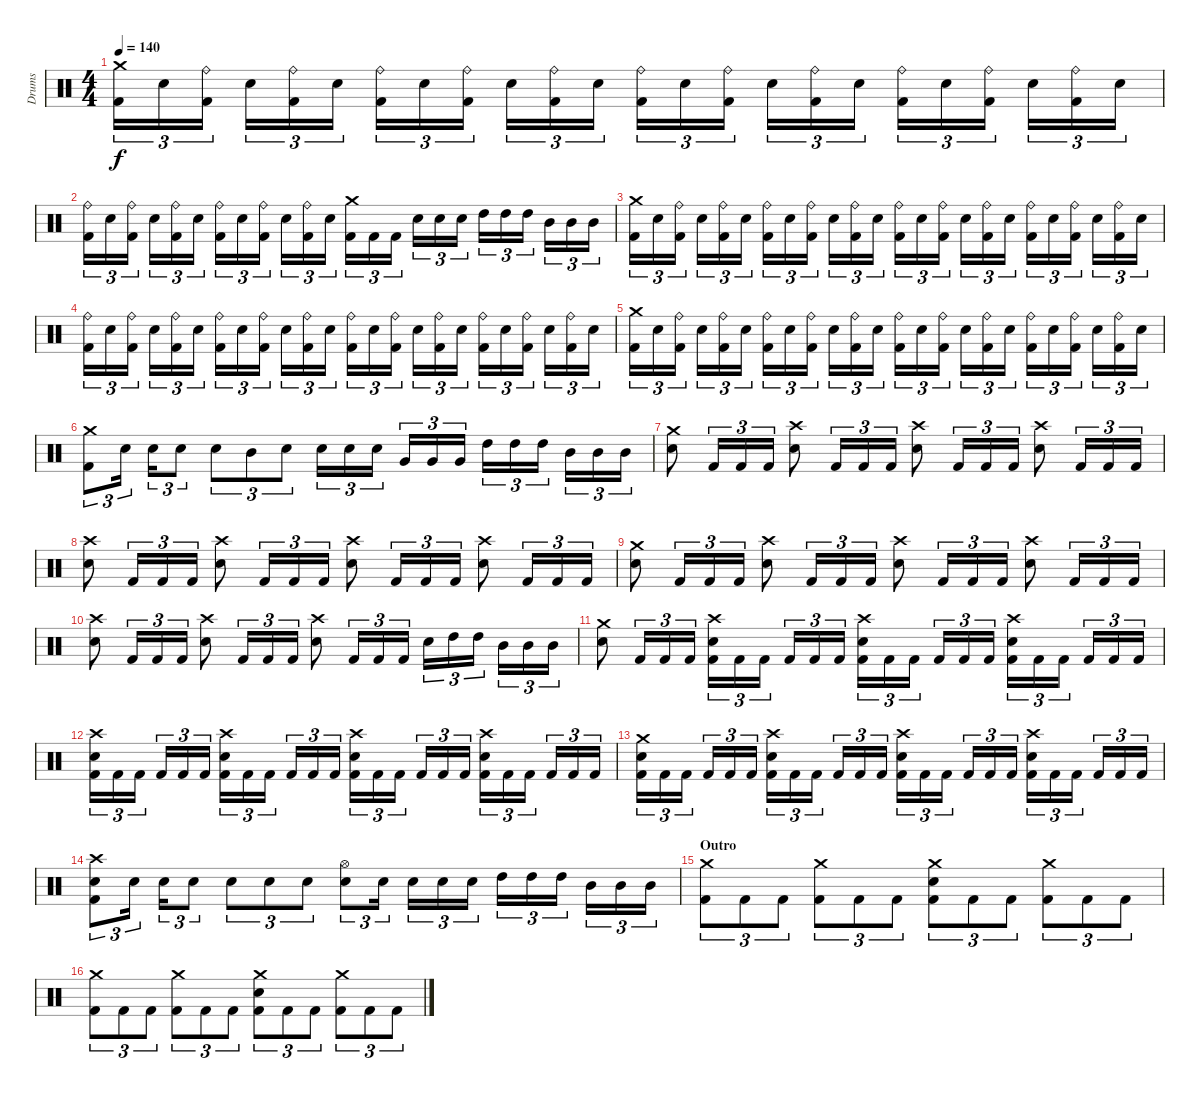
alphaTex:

\track ("Drums" "Drums") {instrument percussion}
\staff {score}
\articulation defaults
\ts (4 4)
\tempo 140
\clef neutral
\ks c
("Crash medium (hit)" "Kick (hit) 2").16{tu (3 2) dy f} "Snare (hit) 2".16{tu (3 2)} ("Ride (bell)" "Kick (hit) 2").16{tu (3 2)} "Snare (hit) 2".16{tu (3 2)} ("Ride (bell)" "Kick (hit) 2").16{tu (3 2)} "Snare (hit) 2".16{tu (3 2)} ("Ride (bell)" "Kick (hit) 2").16{tu (3 2)} "Snare (hit) 2".16{tu (3 2)} ("Ride (bell)" "Kick (hit) 2").16{tu (3 2)} "Snare (hit) 2".16{tu (3 2)} ("Ride (bell)" "Kick (hit) 2").16{tu (3 2)} "Snare (hit) 2".16{tu (3 2)} ("Ride (bell)" "Kick (hit) 2").16{tu (3 2)} "Snare (hit) 2".16{tu (3 2)} ("Ride (bell)" "Kick (hit) 2").16{tu (3 2)} "Snare (hit) 2".16{tu (3 2)} ("Ride (bell)" "Kick (hit) 2").16{tu (3 2)} "Snare (hit) 2".16{tu (3 2)} ("Ride (bell)" "Kick (hit) 2").16{tu (3 2)} "Snare (hit) 2".16{tu (3 2)} ("Ride (bell)" "Kick (hit) 2").16{tu (3 2)} "Snare (hit) 2".16{tu (3 2)} ("Ride (bell)" "Kick (hit) 2").16{tu (3 2)} "Snare (hit) 2".16{tu (3 2)} |
("Ride (bell)" "Kick (hit) 2").16{tu (3 2)} "Snare (hit) 2".16{tu (3 2)} ("Ride (bell)" "Kick (hit) 2").16{tu (3 2)} "Snare (hit) 2".16{tu (3 2)} ("Ride (bell)" "Kick (hit) 2").16{tu (3 2)} "Snare (hit) 2".16{tu (3 2)} ("Ride (bell)" "Kick (hit) 2").16{tu (3 2)} "Snare (hit) 2".16{tu (3 2)} ("Ride (bell)" "Kick (hit) 2").16{tu (3 2)} "Snare (hit) 2".16{tu (3 2)} ("Ride (bell)" "Kick (hit) 2").16{tu (3 2)} "Snare (hit) 2".16{tu (3 2)} ("Crash medium (hit)" "Kick (hit) 2").16{tu (3 2)} "Kick (hit) 2".16{tu (3 2)} "Kick (hit) 2".16{tu (3 2)} "Snare (hit) 2".16{tu (3 2)} "Snare (hit) 2".16{tu (3 2)} "Snare (hit) 2".16{tu (3 2)} "High Tom (hit)".16{tu (3 2)} "High Tom (hit)".16{tu (3 2)} "High Tom (hit)".16{tu (3 2)} "Mid Tom (hit)".16{tu (3 2)} "Mid Tom (hit)".16{tu (3 2)} "Mid Tom (hit)".16{tu (3 2)} |
("Crash medium (hit)" "Kick (hit) 2").16{tu (3 2)} "Snare (hit) 2".16{tu (3 2)} ("Ride (bell)" "Kick (hit) 2").16{tu (3 2)} "Snare (hit) 2".16{tu (3 2)} ("Ride (bell)" "Kick (hit) 2").16{tu (3 2)} "Snare (hit) 2".16{tu (3 2)} ("Ride (bell)" "Kick (hit) 2").16{tu (3 2)} "Snare (hit) 2".16{tu (3 2)} ("Ride (bell)" "Kick (hit) 2").16{tu (3 2)} "Snare (hit) 2".16{tu (3 2)} ("Ride (bell)" "Kick (hit) 2").16{tu (3 2)} "Snare (hit) 2".16{tu (3 2)} ("Ride (bell)" "Kick (hit) 2").16{tu (3 2)} "Snare (hit) 2".16{tu (3 2)} ("Ride (bell)" "Kick (hit) 2").16{tu (3 2)} "Snare (hit) 2".16{tu (3 2)} ("Ride (bell)" "Kick (hit) 2").16{tu (3 2)} "Snare (hit) 2".16{tu (3 2)} ("Ride (bell)" "Kick (hit) 2").16{tu (3 2)} "Snare (hit) 2".16{tu (3 2)} ("Ride (bell)" "Kick (hit) 2").16{tu (3 2)} "Snare (hit) 2".16{tu (3 2)} ("Ride (bell)" "Kick (hit) 2").16{tu (3 2)} "Snare (hit) 2".16{tu (3 2)} |
("Ride (bell)" "Kick (hit) 2").16{tu (3 2)} "Snare (hit) 2".16{tu (3 2)} ("Ride (bell)" "Kick (hit) 2").16{tu (3 2)} "Snare (hit) 2".16{tu (3 2)} ("Ride (bell)" "Kick (hit) 2").16{tu (3 2)} "Snare (hit) 2".16{tu (3 2)} ("Ride (bell)" "Kick (hit) 2").16{tu (3 2)} "Snare (hit) 2".16{tu (3 2)} ("Ride (bell)" "Kick (hit) 2").16{tu (3 2)} "Snare (hit) 2".16{tu (3 2)} ("Ride (bell)" "Kick (hit) 2").16{tu (3 2)} "Snare (hit) 2".16{tu (3 2)} ("Ride (bell)" "Kick (hit) 2").16{tu (3 2)} "Snare (hit) 2".16{tu (3 2)} ("Ride (bell)" "Kick (hit) 2").16{tu (3 2)} "Snare (hit) 2".16{tu (3 2)} ("Ride (bell)" "Kick (hit) 2").16{tu (3 2)} "Snare (hit) 2".16{tu (3 2)} ("Ride (bell)" "Kick (hit) 2").16{tu (3 2)} "Snare (hit) 2".16{tu (3 2)} ("Ride (bell)" "Kick (hit) 2").16{tu (3 2)} "Snare (hit) 2".16{tu (3 2)} ("Ride (bell)" "Kick (hit) 2").16{tu (3 2)} "Snare (hit) 2".16{tu (3 2)} |
("Crash medium (hit)" "Kick (hit) 2").16{tu (3 2)} "Snare (hit) 2".16{tu (3 2)} ("Ride (bell)" "Kick (hit) 2").16{tu (3 2)} "Snare (hit) 2".16{tu (3 2)} ("Ride (bell)" "Kick (hit) 2").16{tu (3 2)} "Snare (hit) 2".16{tu (3 2)} ("Ride (bell)" "Kick (hit) 2").16{tu (3 2)} "Snare (hit) 2".16{tu (3 2)} ("Ride (bell)" "Kick (hit) 2").16{tu (3 2)} "Snare (hit) 2".16{tu (3 2)} ("Ride (bell)" "Kick (hit) 2").16{tu (3 2)} "Snare (hit) 2".16{tu (3 2)} ("Ride (bell)" "Kick (hit) 2").16{tu (3 2)} "Snare (hit) 2".16{tu (3 2)} ("Ride (bell)" "Kick (hit) 2").16{tu (3 2)} "Snare (hit) 2".16{tu (3 2)} ("Ride (bell)" "Kick (hit) 2").16{tu (3 2)} "Snare (hit) 2".16{tu (3 2)} ("Ride (bell)" "Kick (hit) 2").16{tu (3 2)} "Snare (hit) 2".16{tu (3 2)} ("Ride (bell)" "Kick (hit) 2").16{tu (3 2)} "Snare (hit) 2".16{tu (3 2)} ("Ride (bell)" "Kick (hit) 2").16{tu (3 2)} "Snare (hit) 2".16{tu (3 2)} |
("Crash medium (hit)" "Kick (hit) 2").8{tu (3 2)} "Snare (hit) 2".16{tu (3 2)} "Snare (hit) 2".16{tu (3 2)} "Snare (hit) 2".8{tu (3 2)} "Snare (hit) 2".8{tu (3 2)} "Mid Tom (hit)".8{tu (3 2)} "Snare (hit) 2".8{tu (3 2)} "Snare (hit) 2".16{tu (3 2)} "Snare (hit) 2".16{tu (3 2)} "Snare (hit) 2".16{tu (3 2)} "Very Low Tom (hit)".16{tu (3 2)} "Very Low Tom (hit)".16{tu (3 2)} "Very Low Tom (hit)".16{tu (3 2)} "High Tom (hit)".16{tu (3 2)} "High Tom (hit)".16{tu (3 2)} "High Tom (hit)".16{tu (3 2)} "Mid Tom (hit)".16{tu (3 2)} "Mid Tom (hit)".16{tu (3 2)} "Mid Tom (hit)".16{tu (3 2)} |
("Crash medium (hit)" "Snare (hit) 2").8 "Kick (hit) 2".16{tu (3 2)} "Kick (hit) 2".16{tu (3 2)} "Kick (hit) 2".16{tu (3 2)} ("Crash high (hit)" "Snare (hit) 2").8 "Kick (hit) 2".16{tu (3 2)} "Kick (hit) 2".16{tu (3 2)} "Kick (hit) 2".16{tu (3 2)} ("Crash high (hit)" "Snare (hit) 2").8 "Kick (hit) 2".16{tu (3 2)} "Kick (hit) 2".16{tu (3 2)} "Kick (hit) 2".16{tu (3 2)} ("Crash high (hit)" "Snare (hit) 2").8 "Kick (hit) 2".16{tu (3 2)} "Kick (hit) 2".16{tu (3 2)} "Kick (hit) 2".16{tu (3 2)} |
("Crash high (hit)" "Snare (hit) 2").8 "Kick (hit) 2".16{tu (3 2)} "Kick (hit) 2".16{tu (3 2)} "Kick (hit) 2".16{tu (3 2)} ("Crash high (hit)" "Snare (hit) 2").8 "Kick (hit) 2".16{tu (3 2)} "Kick (hit) 2".16{tu (3 2)} "Kick (hit) 2".16{tu (3 2)} ("Crash high (hit)" "Snare (hit) 2").8 "Kick (hit) 2".16{tu (3 2)} "Kick (hit) 2".16{tu (3 2)} "Kick (hit) 2".16{tu (3 2)} ("Crash high (hit)" "Snare (hit) 2").8 "Kick (hit) 2".16{tu (3 2)} "Kick (hit) 2".16{tu (3 2)} "Kick (hit) 2".16{tu (3 2)} |
("Crash medium (hit)" "Snare (hit) 2").8 "Kick (hit) 2".16{tu (3 2)} "Kick (hit) 2".16{tu (3 2)} "Kick (hit) 2".16{tu (3 2)} ("Crash high (hit)" "Snare (hit) 2").8 "Kick (hit) 2".16{tu (3 2)} "Kick (hit) 2".16{tu (3 2)} "Kick (hit) 2".16{tu (3 2)} ("Crash high (hit)" "Snare (hit) 2").8 "Kick (hit) 2".16{tu (3 2)} "Kick (hit) 2".16{tu (3 2)} "Kick (hit) 2".16{tu (3 2)} ("Crash high (hit)" "Snare (hit) 2").8 "Kick (hit) 2".16{tu (3 2)} "Kick (hit) 2".16{tu (3 2)} "Kick (hit) 2".16{tu (3 2)} |
("Crash high (hit)" "Snare (hit) 2").8 "Kick (hit) 2".16{tu (3 2)} "Kick (hit) 2".16{tu (3 2)} "Kick (hit) 2".16{tu (3 2)} ("Crash high (hit)" "Snare (hit) 2").8 "Kick (hit) 2".16{tu (3 2)} "Kick (hit) 2".16{tu (3 2)} "Kick (hit) 2".16{tu (3 2)} ("Crash high (hit)" "Snare (hit) 2").8 "Kick (hit) 2".16{tu (3 2)} "Kick (hit) 2".16{tu (3 2)} "Kick (hit) 2".16{tu (3 2)} "Snare (hit) 2".16{tu (3 2)} "High Tom (hit)".16{tu (3 2)} "High Tom (hit)".16{tu (3 2)} "Mid Tom (hit)".16{tu (3 2)} "Mid Tom (hit)".16{tu (3 2)} "Mid Tom (hit)".16{tu (3 2)} |
("Crash medium (hit)" "Snare (hit) 2").8 "Kick (hit) 2".16{tu (3 2)} "Kick (hit) 2".16{tu (3 2)} "Kick (hit) 2".16{tu (3 2)} ("Crash high (hit)" "Snare (hit) 2" "Kick (hit) 2").16{tu (3 2)} "Kick (hit) 2".16{tu (3 2)} "Kick (hit) 2".16{tu (3 2)} "Kick (hit) 2".16{tu (3 2)} "Kick (hit) 2".16{tu (3 2)} "Kick (hit) 2".16{tu (3 2)} ("Crash high (hit)" "Snare (hit) 2" "Kick (hit) 2").16{tu (3 2)} "Kick (hit) 2".16{tu (3 2)} "Kick (hit) 2".16{tu (3 2)} "Kick (hit) 2".16{tu (3 2)} "Kick (hit) 2".16{tu (3 2)} "Kick (hit) 2".16{tu (3 2)} ("Crash high (hit)" "Snare (hit) 2" "Kick (hit) 2").16{tu (3 2)} "Kick (hit) 2".16{tu (3 2)} "Kick (hit) 2".16{tu (3 2)} "Kick (hit) 2".16{tu (3 2)} "Kick (hit) 2".16{tu (3 2)} "Kick (hit) 2".16{tu (3 2)} |
("Crash high (hit)" "Snare (hit) 2" "Kick (hit) 2").16{tu (3 2)} "Kick (hit) 2".16{tu (3 2)} "Kick (hit) 2".16{tu (3 2)} "Kick (hit) 2".16{tu (3 2)} "Kick (hit) 2".16{tu (3 2)} "Kick (hit) 2".16{tu (3 2)} ("Crash high (hit)" "Snare (hit) 2" "Kick (hit) 2").16{tu (3 2)} "Kick (hit) 2".16{tu (3 2)} "Kick (hit) 2".16{tu (3 2)} "Kick (hit) 2".16{tu (3 2)} "Kick (hit) 2".16{tu (3 2)} "Kick (hit) 2".16{tu (3 2)} ("Crash high (hit)" "Snare (hit) 2" "Kick (hit) 2").16{tu (3 2)} "Kick (hit) 2".16{tu (3 2)} "Kick (hit) 2".16{tu (3 2)} "Kick (hit) 2".16{tu (3 2)} "Kick (hit) 2".16{tu (3 2)} "Kick (hit) 2".16{tu (3 2)} ("Crash high (hit)" "Snare (hit) 2" "Kick (hit) 2").16{tu (3 2)} "Kick (hit) 2".16{tu (3 2)} "Kick (hit) 2".16{tu (3 2)} "Kick (hit) 2".16{tu (3 2)} "Kick (hit) 2".16{tu (3 2)} "Kick (hit) 2".16{tu (3 2)} |
("Crash medium (hit)" "Snare (hit) 2" "Kick (hit) 2").16{tu (3 2)} "Kick (hit) 2".16{tu (3 2)} "Kick (hit) 2".16{tu (3 2)} "Kick (hit) 2".16{tu (3 2)} "Kick (hit) 2".16{tu (3 2)} "Kick (hit) 2".16{tu (3 2)} ("Crash high (hit)" "Snare (hit) 2" "Kick (hit) 2").16{tu (3 2)} "Kick (hit) 2".16{tu (3 2)} "Kick (hit) 2".16{tu (3 2)} "Kick (hit) 2".16{tu (3 2)} "Kick (hit) 2".16{tu (3 2)} "Kick (hit) 2".16{tu (3 2)} ("Crash high (hit)" "Snare (hit) 2" "Kick (hit) 2").16{tu (3 2)} "Kick (hit) 2".16{tu (3 2)} "Kick (hit) 2".16{tu (3 2)} "Kick (hit) 2".16{tu (3 2)} "Kick (hit) 2".16{tu (3 2)} "Kick (hit) 2".16{tu (3 2)} ("Crash high (hit)" "Snare (hit) 2" "Kick (hit) 2").16{tu (3 2)} "Kick (hit) 2".16{tu (3 2)} "Kick (hit) 2".16{tu (3 2)} "Kick (hit) 2".16{tu (3 2)} "Kick (hit) 2".16{tu (3 2)} "Kick (hit) 2".16{tu (3 2)} |
("Crash high (hit)" "Snare (hit) 2" "Kick (hit) 2").8{tu (3 2)} "Snare (hit) 2".16{tu (3 2)} "Snare (hit) 2".16{tu (3 2)} "Snare (hit) 2".8{tu (3 2)} "Snare (hit) 2".8{tu (3 2)} "Snare (hit) 2".8{tu (3 2)} "Snare (hit) 2".8{tu (3 2)} ("Hi-Hat (open)" "Snare (hit) 2").8{tu (3 2)} "Snare (hit) 2".16{tu (3 2)} "Snare (hit) 2".16{tu (3 2)} "Snare (hit) 2".16{tu (3 2)} "Snare (hit) 2".16{tu (3 2)} "High Tom (hit)".16{tu (3 2)} "High Tom (hit)".16{tu (3 2)} "High Tom (hit)".16{tu (3 2)} "Mid Tom (hit)".16{tu (3 2)} "Mid Tom (hit)".16{tu (3 2)} "Mid Tom (hit)".16{tu (3 2)} |
\section ("" "Outro")
("Crash medium (hit)" "Kick (hit) 2").8{tu (3 2)} "Kick (hit) 2".8{tu (3 2)} "Kick (hit) 2".8{tu (3 2)} ("Crash medium (hit)" "Kick (hit) 2").8{tu (3 2)} "Kick (hit) 2".8{tu (3 2)} "Kick (hit) 2".8{tu (3 2)} ("Crash medium (hit)" "Snare (hit) 2" "Kick (hit) 2").8{tu (3 2)} "Kick (hit) 2".8{tu (3 2)} "Kick (hit) 2".8{tu (3 2)} ("Crash medium (hit)" "Kick (hit) 2").8{tu (3 2)} "Kick (hit) 2".8{tu (3 2)} "Kick (hit) 2".8{tu (3 2)} |
("Crash medium (hit)" "Kick (hit) 2").8{tu (3 2)} "Kick (hit) 2".8{tu (3 2)} "Kick (hit) 2".8{tu (3 2)} ("Crash medium (hit)" "Kick (hit) 2").8{tu (3 2)} "Kick (hit) 2".8{tu (3 2)} "Kick (hit) 2".8{tu (3 2)} ("Crash medium (hit)" "Snare (hit) 2" "Kick (hit) 2").8{tu (3 2)} "Kick (hit) 2".8{tu (3 2)} "Kick (hit) 2".8{tu (3 2)} ("Crash medium (hit)" "Kick (hit) 2").8{tu (3 2)} "Kick (hit) 2".8{tu (3 2)} "Kick (hit) 2".8{tu (3 2)}
